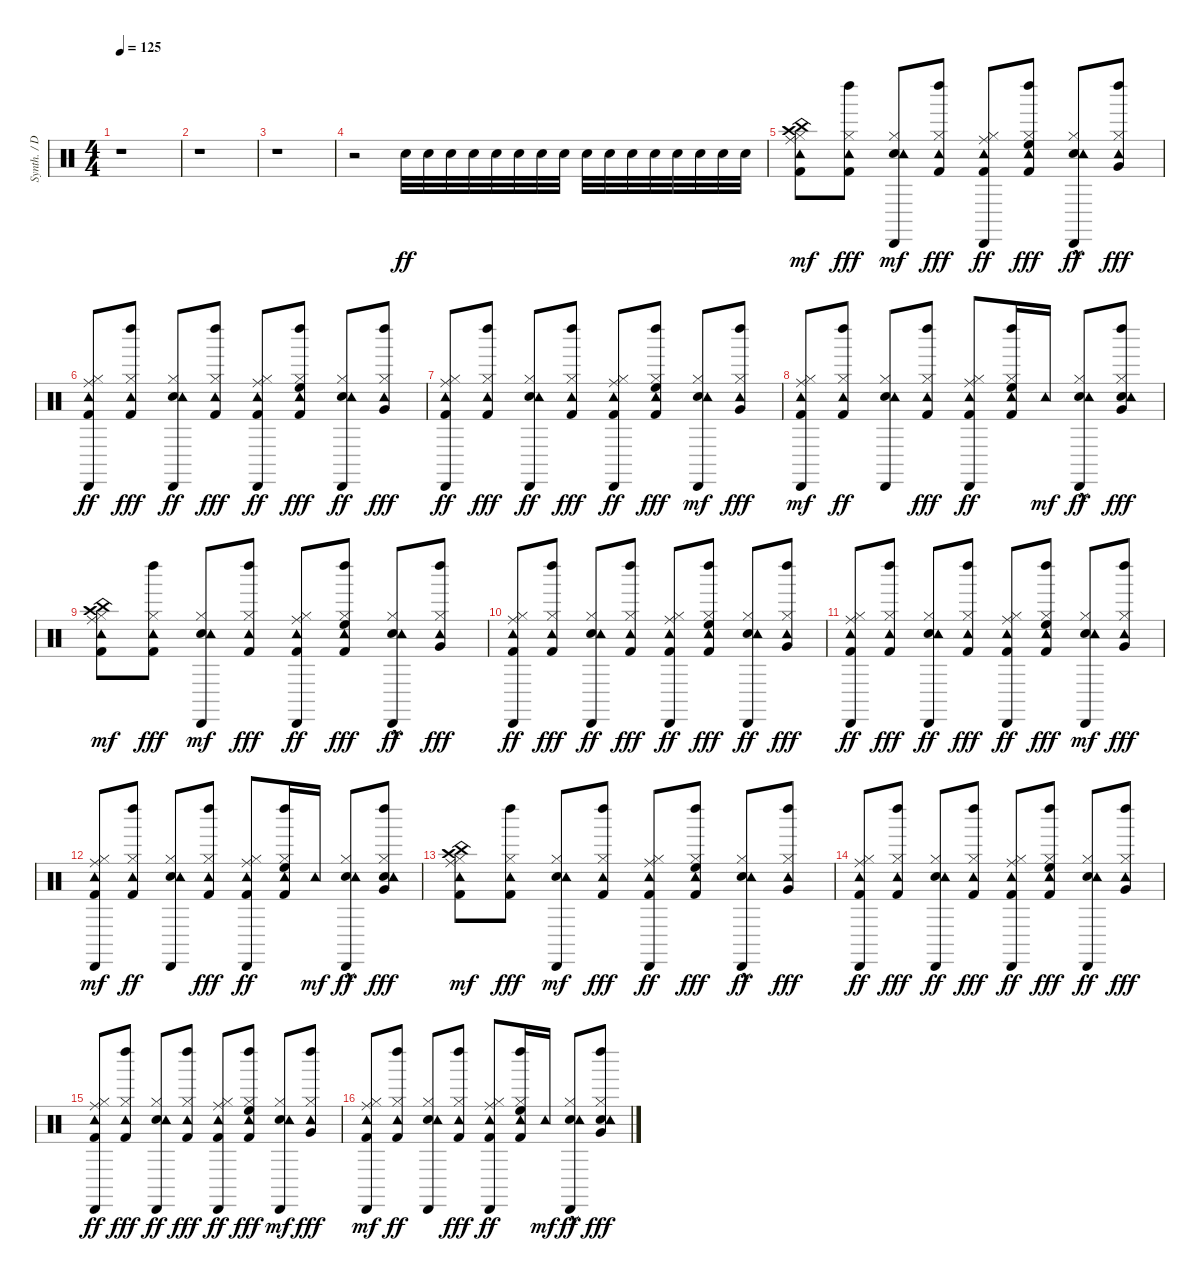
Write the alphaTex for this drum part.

\track ("Synth. / Drums" "Synth. / D") {instrument percussion}
\staff {score}
\articulation defaults
\ts (4 4)
\tempo 125
\clef neutral
\ks c
r.1{dy fff} |
r.1 |
r.1 |
r.2 "Electric Snare (hit)".32{dy ff} "Electric Snare (hit)".32 "Electric Snare (hit)".32 "Electric Snare (hit)".32 "Electric Snare (hit)".32 "Electric Snare (hit)".32 "Electric Snare (hit)".32 "Electric Snare (hit)".32 "Electric Snare (hit)".32 "Electric Snare (hit)".32 "Electric Snare (hit)".32 "Electric Snare (hit)".32 "Electric Snare (hit)".32 "Electric Snare (hit)".32 "Electric Snare (hit)".32 "Electric Snare (hit)".32 |
("Kick (hit) 2" "Hi-Hat (closed)" "Crash high (hit)" "Ride (middle)" "China (hit)" "Tambourine (hit)").8{dy mf} ("Kick (hit) 2" "Hi-Hat (closed)" "Tambourine (hit)" "Left Maraca (hit)").8{dy fff} ("Electric Snare (hit)" "Hi-Hat (closed)" "Tambourine (hit)" "Cabasa (hit)").8{dy mf} ("Kick (hit) 2" "Hi-Hat (closed)" "Tambourine (hit)" "Left Maraca (hit)").8{dy fff} ("Kick (hit) 2" "Hi-Hat (closed)" "Ride (middle)" "Tambourine (hit)" "Cabasa (hit)").8{dy ff} ("Kick (hit) 2" "Hi-Hat (closed)" "High Floor Tom (hit)" "Tambourine (hit)" "Left Maraca (hit)").8{dy fff} ("Electric Snare (hit)"{hac} "Hi-Hat (closed)" "Tambourine (hit)" "Cabasa (hit)").8{dy ff} ("Hi-Hat (closed)" "Very Low Tom (hit)" "Tambourine (hit)" "Left Maraca (hit)").8{dy fff} |
("Kick (hit) 2" "Hi-Hat (closed)" "Ride (middle)" "Tambourine (hit)" "Cabasa (hit)").8{dy ff} ("Kick (hit) 2" "Hi-Hat (closed)" "Tambourine (hit)" "Left Maraca (hit)").8{dy fff} ("Electric Snare (hit)" "Hi-Hat (closed)" "Tambourine (hit)" "Cabasa (hit)").8{dy ff} ("Kick (hit) 2" "Hi-Hat (closed)" "Tambourine (hit)" "Left Maraca (hit)").8{dy fff} ("Kick (hit) 2" "Hi-Hat (closed)" "Ride (middle)" "Tambourine (hit)" "Cabasa (hit)").8{dy ff} ("Kick (hit) 2" "Hi-Hat (closed)" "High Floor Tom (hit)" "Tambourine (hit)" "Left Maraca (hit)").8{dy fff} ("Electric Snare (hit)" "Hi-Hat (closed)" "Tambourine (hit)" "Cabasa (hit)").8{dy ff} ("Hi-Hat (closed)" "Very Low Tom (hit)" "Tambourine (hit)" "Left Maraca (hit)").8{dy fff} |
("Kick (hit) 2" "Hi-Hat (closed)" "Ride (middle)" "Tambourine (hit)" "Cabasa (hit)").8{dy ff} ("Kick (hit) 2" "Hi-Hat (closed)" "Tambourine (hit)" "Left Maraca (hit)").8{dy fff} ("Electric Snare (hit)" "Hi-Hat (closed)" "Tambourine (hit)" "Cabasa (hit)").8{dy ff} ("Kick (hit) 2" "Hi-Hat (closed)" "Tambourine (hit)" "Left Maraca (hit)").8{dy fff} ("Kick (hit) 2" "Hi-Hat (closed)" "Ride (middle)" "Tambourine (hit)" "Cabasa (hit)").8{dy ff} ("Kick (hit) 2" "Hi-Hat (closed)" "High Floor Tom (hit)" "Tambourine (hit)" "Left Maraca (hit)").8{dy fff} ("Electric Snare (hit)" "Hi-Hat (closed)" "Tambourine (hit)" "Cabasa (hit)").8{dy mf} ("Hi-Hat (closed)" "Very Low Tom (hit)" "Tambourine (hit)" "Left Maraca (hit)").8{dy fff} |
("Kick (hit) 2" "Hi-Hat (closed)" "Ride (middle)" "Tambourine (hit)" "Cabasa (hit)").8{dy mf} ("Kick (hit) 2" "Hi-Hat (closed)" "Tambourine (hit)" "Left Maraca (hit)").8{dy ff} ("Electric Snare (hit)" "Hi-Hat (closed)" "Tambourine (hit)" "Cabasa (hit)").8 ("Kick (hit) 2" "Hi-Hat (closed)" "Tambourine (hit)" "Left Maraca (hit)").8{dy fff} ("Kick (hit) 2" "Hi-Hat (closed)" "Ride (middle)" "Tambourine (hit)" "Cabasa (hit)").8{dy ff} ("Kick (hit) 2" "Hi-Hat (closed)" "High Floor Tom (hit)" "Tambourine (hit)" "Left Maraca (hit)").16 "Tambourine (hit)".16{dy mf} ("Electric Snare (hit)" "Hi-Hat (closed)" "Tambourine (hit)" "Cabasa (hit)"{hac}).8{dy ff} ("Electric Snare (hit)" "Hi-Hat (closed)" "Very Low Tom (hit)" "Tambourine (hit)" "Left Maraca (hit)").8{dy fff} |
("Kick (hit) 2" "Hi-Hat (closed)" "Crash high (hit)" "Ride (middle)" "China (hit)" "Tambourine (hit)").8{dy mf} ("Kick (hit) 2" "Hi-Hat (closed)" "Tambourine (hit)" "Left Maraca (hit)").8{dy fff} ("Electric Snare (hit)" "Hi-Hat (closed)" "Tambourine (hit)" "Cabasa (hit)").8{dy mf} ("Kick (hit) 2" "Hi-Hat (closed)" "Tambourine (hit)" "Left Maraca (hit)").8{dy fff} ("Kick (hit) 2" "Hi-Hat (closed)" "Ride (middle)" "Tambourine (hit)" "Cabasa (hit)").8{dy ff} ("Kick (hit) 2" "Hi-Hat (closed)" "High Floor Tom (hit)" "Tambourine (hit)" "Left Maraca (hit)").8{dy fff} ("Electric Snare (hit)"{hac} "Hi-Hat (closed)" "Tambourine (hit)" "Cabasa (hit)").8{dy ff} ("Hi-Hat (closed)" "Very Low Tom (hit)" "Tambourine (hit)" "Left Maraca (hit)").8{dy fff} |
("Kick (hit) 2" "Hi-Hat (closed)" "Ride (middle)" "Tambourine (hit)" "Cabasa (hit)").8{dy ff} ("Kick (hit) 2" "Hi-Hat (closed)" "Tambourine (hit)" "Left Maraca (hit)").8{dy fff} ("Electric Snare (hit)" "Hi-Hat (closed)" "Tambourine (hit)" "Cabasa (hit)").8{dy ff} ("Kick (hit) 2" "Hi-Hat (closed)" "Tambourine (hit)" "Left Maraca (hit)").8{dy fff} ("Kick (hit) 2" "Hi-Hat (closed)" "Ride (middle)" "Tambourine (hit)" "Cabasa (hit)").8{dy ff} ("Kick (hit) 2" "Hi-Hat (closed)" "High Floor Tom (hit)" "Tambourine (hit)" "Left Maraca (hit)").8{dy fff} ("Electric Snare (hit)" "Hi-Hat (closed)" "Tambourine (hit)" "Cabasa (hit)").8{dy ff} ("Hi-Hat (closed)" "Very Low Tom (hit)" "Tambourine (hit)" "Left Maraca (hit)").8{dy fff} |
("Kick (hit) 2" "Hi-Hat (closed)" "Ride (middle)" "Tambourine (hit)" "Cabasa (hit)").8{dy ff} ("Kick (hit) 2" "Hi-Hat (closed)" "Tambourine (hit)" "Left Maraca (hit)").8{dy fff} ("Electric Snare (hit)" "Hi-Hat (closed)" "Tambourine (hit)" "Cabasa (hit)").8{dy ff} ("Kick (hit) 2" "Hi-Hat (closed)" "Tambourine (hit)" "Left Maraca (hit)").8{dy fff} ("Kick (hit) 2" "Hi-Hat (closed)" "Ride (middle)" "Tambourine (hit)" "Cabasa (hit)").8{dy ff} ("Kick (hit) 2" "Hi-Hat (closed)" "High Floor Tom (hit)" "Tambourine (hit)" "Left Maraca (hit)").8{dy fff} ("Electric Snare (hit)" "Hi-Hat (closed)" "Tambourine (hit)" "Cabasa (hit)").8{dy mf} ("Hi-Hat (closed)" "Very Low Tom (hit)" "Tambourine (hit)" "Left Maraca (hit)").8{dy fff} |
("Kick (hit) 2" "Hi-Hat (closed)" "Ride (middle)" "Tambourine (hit)" "Cabasa (hit)").8{dy mf} ("Kick (hit) 2" "Hi-Hat (closed)" "Tambourine (hit)" "Left Maraca (hit)").8{dy ff} ("Electric Snare (hit)" "Hi-Hat (closed)" "Tambourine (hit)" "Cabasa (hit)").8 ("Kick (hit) 2" "Hi-Hat (closed)" "Tambourine (hit)" "Left Maraca (hit)").8{dy fff} ("Kick (hit) 2" "Hi-Hat (closed)" "Ride (middle)" "Tambourine (hit)" "Cabasa (hit)").8{dy ff} ("Kick (hit) 2" "Hi-Hat (closed)" "High Floor Tom (hit)" "Tambourine (hit)" "Left Maraca (hit)").16 "Tambourine (hit)".16{dy mf} ("Electric Snare (hit)" "Hi-Hat (closed)" "Tambourine (hit)" "Cabasa (hit)"{hac}).8{dy ff} ("Electric Snare (hit)" "Hi-Hat (closed)" "Very Low Tom (hit)" "Tambourine (hit)" "Left Maraca (hit)").8{dy fff} |
("Kick (hit) 2" "Hi-Hat (closed)" "Crash high (hit)" "Ride (middle)" "China (hit)" "Tambourine (hit)").8{dy mf} ("Kick (hit) 2" "Hi-Hat (closed)" "Tambourine (hit)" "Left Maraca (hit)").8{dy fff} ("Electric Snare (hit)" "Hi-Hat (closed)" "Tambourine (hit)" "Cabasa (hit)").8{dy mf} ("Kick (hit) 2" "Hi-Hat (closed)" "Tambourine (hit)" "Left Maraca (hit)").8{dy fff} ("Kick (hit) 2" "Hi-Hat (closed)" "Ride (middle)" "Tambourine (hit)" "Cabasa (hit)").8{dy ff} ("Kick (hit) 2" "Hi-Hat (closed)" "High Floor Tom (hit)" "Tambourine (hit)" "Left Maraca (hit)").8{dy fff} ("Electric Snare (hit)"{hac} "Hi-Hat (closed)" "Tambourine (hit)" "Cabasa (hit)").8{dy ff} ("Hi-Hat (closed)" "Very Low Tom (hit)" "Tambourine (hit)" "Left Maraca (hit)").8{dy fff} |
("Kick (hit) 2" "Hi-Hat (closed)" "Ride (middle)" "Tambourine (hit)" "Cabasa (hit)").8{dy ff} ("Kick (hit) 2" "Hi-Hat (closed)" "Tambourine (hit)" "Left Maraca (hit)").8{dy fff} ("Electric Snare (hit)" "Hi-Hat (closed)" "Tambourine (hit)" "Cabasa (hit)").8{dy ff} ("Kick (hit) 2" "Hi-Hat (closed)" "Tambourine (hit)" "Left Maraca (hit)").8{dy fff} ("Kick (hit) 2" "Hi-Hat (closed)" "Ride (middle)" "Tambourine (hit)" "Cabasa (hit)").8{dy ff} ("Kick (hit) 2" "Hi-Hat (closed)" "High Floor Tom (hit)" "Tambourine (hit)" "Left Maraca (hit)").8{dy fff} ("Electric Snare (hit)" "Hi-Hat (closed)" "Tambourine (hit)" "Cabasa (hit)").8{dy ff} ("Hi-Hat (closed)" "Very Low Tom (hit)" "Tambourine (hit)" "Left Maraca (hit)").8{dy fff} |
("Kick (hit) 2" "Hi-Hat (closed)" "Ride (middle)" "Tambourine (hit)" "Cabasa (hit)").8{dy ff} ("Kick (hit) 2" "Hi-Hat (closed)" "Tambourine (hit)" "Left Maraca (hit)").8{dy fff} ("Electric Snare (hit)" "Hi-Hat (closed)" "Tambourine (hit)" "Cabasa (hit)").8{dy ff} ("Kick (hit) 2" "Hi-Hat (closed)" "Tambourine (hit)" "Left Maraca (hit)").8{dy fff} ("Kick (hit) 2" "Hi-Hat (closed)" "Ride (middle)" "Tambourine (hit)" "Cabasa (hit)").8{dy ff} ("Kick (hit) 2" "Hi-Hat (closed)" "High Floor Tom (hit)" "Tambourine (hit)" "Left Maraca (hit)").8{dy fff} ("Electric Snare (hit)" "Hi-Hat (closed)" "Tambourine (hit)" "Cabasa (hit)").8{dy mf} ("Hi-Hat (closed)" "Very Low Tom (hit)" "Tambourine (hit)" "Left Maraca (hit)").8{dy fff} |
("Kick (hit) 2" "Hi-Hat (closed)" "Ride (middle)" "Tambourine (hit)" "Cabasa (hit)").8{dy mf} ("Kick (hit) 2" "Hi-Hat (closed)" "Tambourine (hit)" "Left Maraca (hit)").8{dy ff} ("Electric Snare (hit)" "Hi-Hat (closed)" "Tambourine (hit)" "Cabasa (hit)").8 ("Kick (hit) 2" "Hi-Hat (closed)" "Tambourine (hit)" "Left Maraca (hit)").8{dy fff} ("Kick (hit) 2" "Hi-Hat (closed)" "Ride (middle)" "Tambourine (hit)" "Cabasa (hit)").8{dy ff} ("Kick (hit) 2" "Hi-Hat (closed)" "High Floor Tom (hit)" "Tambourine (hit)" "Left Maraca (hit)").16 "Tambourine (hit)".16{dy mf} ("Electric Snare (hit)" "Hi-Hat (closed)" "Tambourine (hit)" "Cabasa (hit)"{hac}).8{dy ff} ("Electric Snare (hit)" "Hi-Hat (closed)" "Very Low Tom (hit)" "Tambourine (hit)" "Left Maraca (hit)").8{dy fff}
